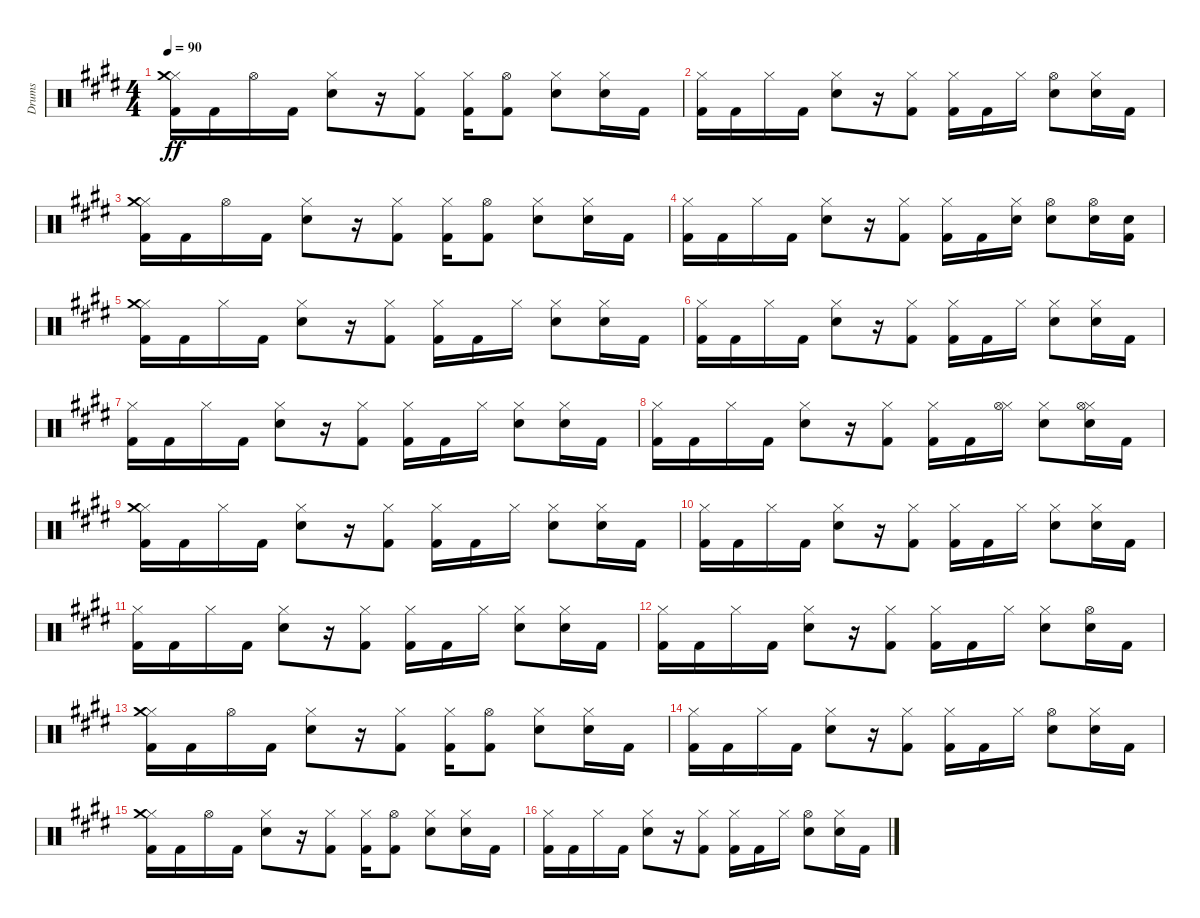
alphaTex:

\track ("Drums" "Drums") {instrument percussion}
\staff {score}
\articulation defaults
\ts (4 4)
\tempo 90
\clef neutral
\ks e
("Kick (hit) 2" "Hi-Hat (closed)" "Crash medium (hit)").16{dy ff} "Kick (hit) 2".16 "Hi-Hat (open)".16 "Kick (hit) 2".16 ("Snare (hit) 2" "Hi-Hat (closed)").8 r.16 ("Kick (hit) 2" "Hi-Hat (closed)").8 ("Kick (hit) 2" "Hi-Hat (closed)").16 ("Kick (hit) 2" "Hi-Hat (open)").8 ("Snare (hit) 2" "Hi-Hat (closed)").8 ("Snare (hit) 2" "Hi-Hat (closed)").16 "Kick (hit) 2".16 |
("Kick (hit) 2" "Hi-Hat (closed)").16 "Kick (hit) 2".16 "Hi-Hat (closed)".16 "Kick (hit) 2".16 ("Snare (hit) 2" "Hi-Hat (closed)").8 r.16 ("Kick (hit) 2" "Hi-Hat (closed)").8 ("Kick (hit) 2" "Hi-Hat (closed)").16 "Kick (hit) 2".16 "Hi-Hat (closed)".16 ("Snare (hit) 2" "Hi-Hat (open)").8 ("Snare (hit) 2" "Hi-Hat (closed)").16 "Kick (hit) 2".16 |
("Kick (hit) 2" "Hi-Hat (closed)" "Crash medium (hit)").16 "Kick (hit) 2".16 "Hi-Hat (open)".16 "Kick (hit) 2".16 ("Snare (hit) 2" "Hi-Hat (closed)").8 r.16 ("Kick (hit) 2" "Hi-Hat (closed)").8 ("Kick (hit) 2" "Hi-Hat (closed)").16 ("Kick (hit) 2" "Hi-Hat (open)").8 ("Snare (hit) 2" "Hi-Hat (closed)").8 ("Snare (hit) 2" "Hi-Hat (closed)").16 "Kick (hit) 2".16 |
("Kick (hit) 2" "Hi-Hat (closed)").16 "Kick (hit) 2".16 "Hi-Hat (closed)".16 "Kick (hit) 2".16 ("Snare (hit) 2" "Hi-Hat (closed)").8 r.16 ("Kick (hit) 2" "Hi-Hat (closed)").8 ("Kick (hit) 2" "Hi-Hat (closed)").16 "Kick (hit) 2".16 ("Snare (hit) 2" "Hi-Hat (closed)").16 ("Snare (hit) 2" "Hi-Hat (open)").8 ("Snare (hit) 2" "Hi-Hat (open)").16 ("Kick (hit) 2" "Snare (hit) 2").16 |
("Kick (hit) 2" "Hi-Hat (closed)" "Crash medium (hit)").16 "Kick (hit) 2".16 "Hi-Hat (closed)".16 "Kick (hit) 2".16 ("Snare (hit) 2" "Hi-Hat (closed)").8 r.16 ("Kick (hit) 2" "Hi-Hat (closed)").8 ("Kick (hit) 2" "Hi-Hat (closed)").16 "Kick (hit) 2".16 "Hi-Hat (closed)".16 ("Snare (hit) 2" "Hi-Hat (closed)").8 ("Snare (hit) 2" "Hi-Hat (closed)").16 "Kick (hit) 2".16 |
("Kick (hit) 2" "Hi-Hat (closed)").16 "Kick (hit) 2".16 "Hi-Hat (closed)".16 "Kick (hit) 2".16 ("Snare (hit) 2" "Hi-Hat (closed)").8 r.16 ("Kick (hit) 2" "Hi-Hat (closed)").8 ("Kick (hit) 2" "Hi-Hat (closed)").16 "Kick (hit) 2".16 "Hi-Hat (closed)".16 ("Snare (hit) 2" "Hi-Hat (closed)").8 ("Snare (hit) 2" "Hi-Hat (closed)").16 "Kick (hit) 2".16 |
("Kick (hit) 2" "Hi-Hat (closed)").16 "Kick (hit) 2".16 "Hi-Hat (closed)".16 "Kick (hit) 2".16 ("Snare (hit) 2" "Hi-Hat (closed)").8 r.16 ("Kick (hit) 2" "Hi-Hat (closed)").8 ("Kick (hit) 2" "Hi-Hat (closed)").16 "Kick (hit) 2".16 "Hi-Hat (closed)".16 ("Snare (hit) 2" "Hi-Hat (closed)").8 ("Snare (hit) 2" "Hi-Hat (closed)").16 "Kick (hit) 2".16 |
("Kick (hit) 2" "Hi-Hat (closed)").16 "Kick (hit) 2".16 "Hi-Hat (closed)".16 "Kick (hit) 2".16 ("Snare (hit) 2" "Hi-Hat (closed)").8 r.16 ("Kick (hit) 2" "Hi-Hat (closed)").8 ("Kick (hit) 2" "Hi-Hat (closed)").16 "Kick (hit) 2".16 ("Hi-Hat (closed)" "Hi-Hat (open)").16 ("Snare (hit) 2" "Hi-Hat (closed)").8 ("Snare (hit) 2" "Hi-Hat (closed)" "Hi-Hat (open)").16 "Kick (hit) 2".16 |
("Kick (hit) 2" "Hi-Hat (closed)" "Crash medium (hit)").16 "Kick (hit) 2".16 "Hi-Hat (closed)".16 "Kick (hit) 2".16 ("Snare (hit) 2" "Hi-Hat (closed)").8 r.16 ("Kick (hit) 2" "Hi-Hat (closed)").8 ("Kick (hit) 2" "Hi-Hat (closed)").16 "Kick (hit) 2".16 "Hi-Hat (closed)".16 ("Snare (hit) 2" "Hi-Hat (closed)").8 ("Snare (hit) 2" "Hi-Hat (closed)").16 "Kick (hit) 2".16 |
("Kick (hit) 2" "Hi-Hat (closed)").16 "Kick (hit) 2".16 "Hi-Hat (closed)".16 "Kick (hit) 2".16 ("Snare (hit) 2" "Hi-Hat (closed)").8 r.16 ("Kick (hit) 2" "Hi-Hat (closed)").8 ("Kick (hit) 2" "Hi-Hat (closed)").16 "Kick (hit) 2".16 "Hi-Hat (closed)".16 ("Snare (hit) 2" "Hi-Hat (closed)").8 ("Snare (hit) 2" "Hi-Hat (closed)").16 "Kick (hit) 2".16 |
("Kick (hit) 2" "Hi-Hat (closed)").16 "Kick (hit) 2".16 "Hi-Hat (closed)".16 "Kick (hit) 2".16 ("Snare (hit) 2" "Hi-Hat (closed)").8 r.16 ("Kick (hit) 2" "Hi-Hat (closed)").8 ("Kick (hit) 2" "Hi-Hat (closed)").16 "Kick (hit) 2".16 "Hi-Hat (closed)".16 ("Snare (hit) 2" "Hi-Hat (closed)").8 ("Snare (hit) 2" "Hi-Hat (closed)").16 "Kick (hit) 2".16 |
("Kick (hit) 2" "Hi-Hat (closed)").16 "Kick (hit) 2".16 "Hi-Hat (closed)".16 "Kick (hit) 2".16 ("Snare (hit) 2" "Hi-Hat (closed)").8 r.16 ("Kick (hit) 2" "Hi-Hat (closed)").8 ("Kick (hit) 2" "Hi-Hat (closed)").16 "Kick (hit) 2".16 "Hi-Hat (closed)".16 ("Snare (hit) 2" "Hi-Hat (closed)").8 ("Snare (hit) 2" "Hi-Hat (open)").16 "Kick (hit) 2".16 |
("Kick (hit) 2" "Hi-Hat (closed)" "Crash medium (hit)").16 "Kick (hit) 2".16 "Hi-Hat (open)".16 "Kick (hit) 2".16 ("Snare (hit) 2" "Hi-Hat (closed)").8 r.16 ("Kick (hit) 2" "Hi-Hat (closed)").8 ("Kick (hit) 2" "Hi-Hat (closed)").16 ("Kick (hit) 2" "Hi-Hat (open)").8 ("Snare (hit) 2" "Hi-Hat (closed)").8 ("Snare (hit) 2" "Hi-Hat (closed)").16 "Kick (hit) 2".16 |
("Kick (hit) 2" "Hi-Hat (closed)").16 "Kick (hit) 2".16 "Hi-Hat (closed)".16 "Kick (hit) 2".16 ("Snare (hit) 2" "Hi-Hat (closed)").8 r.16 ("Kick (hit) 2" "Hi-Hat (closed)").8 ("Kick (hit) 2" "Hi-Hat (closed)").16 "Kick (hit) 2".16 "Hi-Hat (closed)".16 ("Snare (hit) 2" "Hi-Hat (open)").8 ("Snare (hit) 2" "Hi-Hat (closed)").16 "Kick (hit) 2".16 |
("Kick (hit) 2" "Hi-Hat (closed)" "Crash medium (hit)").16 "Kick (hit) 2".16 "Hi-Hat (open)".16 "Kick (hit) 2".16 ("Snare (hit) 2" "Hi-Hat (closed)").8 r.16 ("Kick (hit) 2" "Hi-Hat (closed)").8 ("Kick (hit) 2" "Hi-Hat (closed)").16 ("Kick (hit) 2" "Hi-Hat (open)").8 ("Snare (hit) 2" "Hi-Hat (closed)").8 ("Snare (hit) 2" "Hi-Hat (closed)").16 "Kick (hit) 2".16 |
("Kick (hit) 2" "Hi-Hat (closed)").16 "Kick (hit) 2".16 "Hi-Hat (closed)".16 "Kick (hit) 2".16 ("Snare (hit) 2" "Hi-Hat (closed)").8 r.16 ("Kick (hit) 2" "Hi-Hat (closed)").8 ("Kick (hit) 2" "Hi-Hat (closed)").16 "Kick (hit) 2".16 "Hi-Hat (closed)".16 ("Snare (hit) 2" "Hi-Hat (open)").8 ("Snare (hit) 2" "Hi-Hat (closed)").16 "Kick (hit) 2".16
